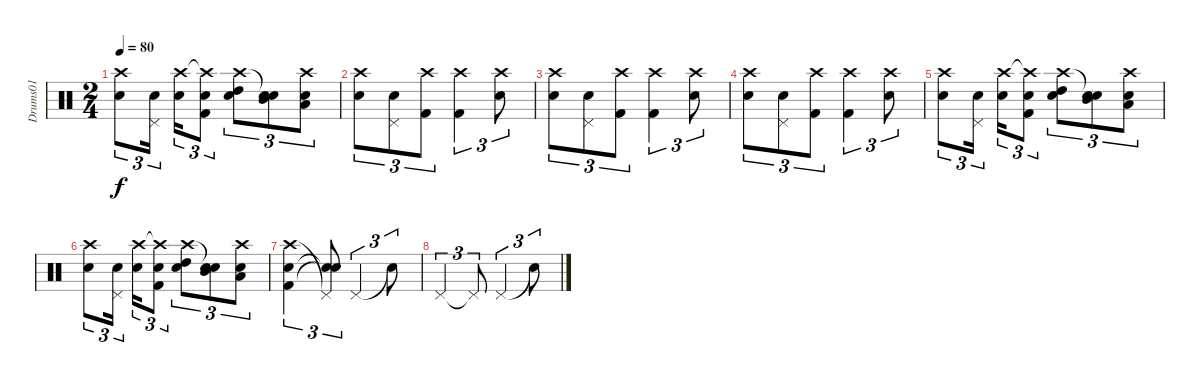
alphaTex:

\track ("Drums01" "Drums01") {instrument percussion}
\staff {score}
\articulation defaults
\ts (2 4)
\tempo 80
\clef neutral
\ks c
("Crash high (hit)" "Snare (hit) 2").8{tu (3 2) dy f} ("Pedal Hi-Hat (hit)" "Snare (hit) 2").16{tu (3 2) beam splitsecondary} ("Crash high (hit)" "Snare (hit) 2").16{tu (3 2)} ("Crash high (hit)"{t} "Snare (hit) 2" "Kick (hit) 2").8{tu (3 2)} ("Crash high (hit)" "High Tom (hit)" "Snare (hit) 2").8{tu (3 2)} ("Snare (hit)"{t} "Mid Tom (hit)" "Snare (hit) 2").8{tu (3 2)} ("Crash high (hit)" "Low Tom (hit)" "Snare (hit) 2").8{tu (3 2)} |
("Crash high (hit)" "Snare (hit) 2").8{tu (3 2)} ("Pedal Hi-Hat (hit)" "Snare (hit) 2").8{tu (3 2)} ("Crash high (hit)" "Kick (hit) 2").8{tu (3 2)} ("Crash high (hit)" "Kick (hit) 2").4{tu (3 2)} ("Crash high (hit)" "Snare (hit) 2").8{tu (3 2)} |
("Crash high (hit)" "Snare (hit) 2").8{tu (3 2)} ("Pedal Hi-Hat (hit)" "Snare (hit) 2").8{tu (3 2)} ("Crash high (hit)" "Kick (hit) 2").8{tu (3 2)} ("Crash high (hit)" "Kick (hit) 2").4{tu (3 2)} ("Crash high (hit)" "Snare (hit) 2").8{tu (3 2)} |
("Crash high (hit)" "Snare (hit) 2").8{tu (3 2)} ("Pedal Hi-Hat (hit)" "Snare (hit) 2").8{tu (3 2)} ("Crash high (hit)" "Kick (hit) 2").8{tu (3 2)} ("Crash high (hit)" "Kick (hit) 2").4{tu (3 2)} ("Crash high (hit)" "Snare (hit) 2").8{tu (3 2)} |
("Crash high (hit)" "Snare (hit) 2").8{tu (3 2)} ("Pedal Hi-Hat (hit)" "Snare (hit) 2").16{tu (3 2) beam splitsecondary} ("Crash high (hit)" "Snare (hit) 2").16{tu (3 2)} ("Crash high (hit)"{t} "Snare (hit) 2" "Kick (hit) 2").8{tu (3 2)} ("Crash high (hit)" "High Tom (hit)" "Snare (hit) 2").8{tu (3 2)} ("Snare (hit)"{t} "Mid Tom (hit)" "Snare (hit) 2").8{tu (3 2)} ("Crash high (hit)" "Low Tom (hit)" "Snare (hit) 2").8{tu (3 2)} |
("Crash high (hit)" "Snare (hit) 2").8{tu (3 2)} ("Pedal Hi-Hat (hit)" "Snare (hit) 2").16{tu (3 2) beam splitsecondary} ("Crash high (hit)" "Snare (hit) 2").16{tu (3 2)} ("Crash high (hit)"{t} "Snare (hit) 2" "Kick (hit) 2").8{tu (3 2)} ("Crash high (hit)" "High Tom (hit)" "Snare (hit) 2").8{tu (3 2)} ("Snare (hit)"{t} "Mid Tom (hit)" "Snare (hit) 2").8{tu (3 2)} ("Crash high (hit)" "Low Tom (hit)" "Snare (hit) 2").8{tu (3 2)} |
("Crash high (hit)" "Snare (hit) 2" "Kick (hit) 2").4{tu (3 2)} ("Pedal Hi-Hat (hit)"{t} "Snare (hit)"{t} "Snare (hit)"{t}).8{tu (3 2)} "Pedal Hi-Hat (hit)".4{tu (3 2)} "Snare (hit)"{t}.8{tu (3 2)} |
"Pedal Hi-Hat (hit)".4{tu (3 2)} "Pedal Hi-Hat (hit)"{t}.8{tu (3 2)} "Pedal Hi-Hat (hit)".4{tu (3 2)} "Snare (hit)"{t}.8{tu (3 2)}
